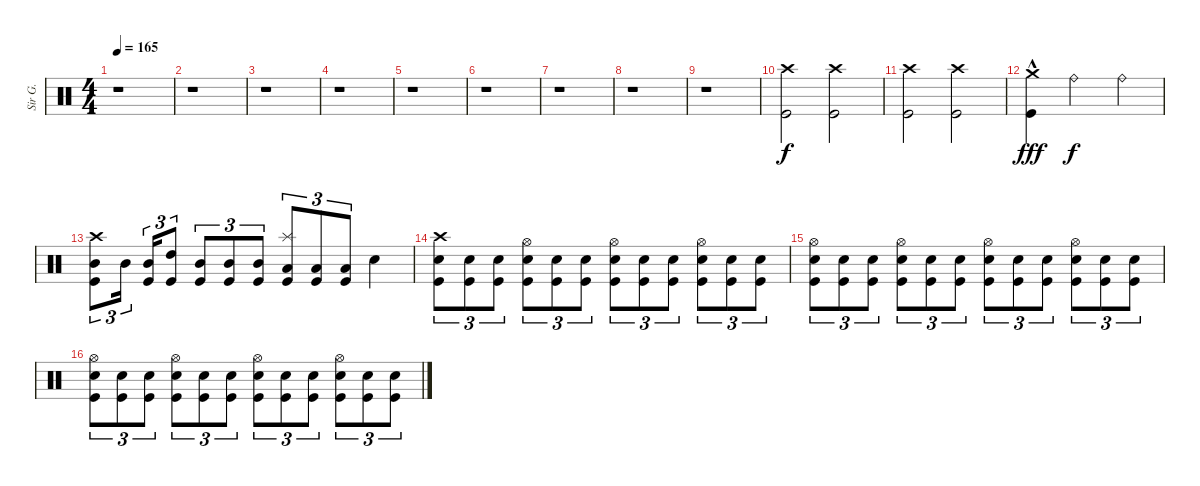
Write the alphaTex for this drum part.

\track ("Sir G." "Sir G.") {instrument percussion}
\staff {score}
\articulation defaults
\ts (4 4)
\tempo 165
\clef neutral
\ks c
r.1{dy f} |
r.1 |
r.1 |
r.1 |
r.1 |
r.1 |
r.1 |
r.1 |
r.1 |
("Crash high (hit)" "Kick (hit)").2 ("Crash high (hit)" "Kick (hit)").2 |
("Crash high (hit)" "Kick (hit)").2 ("Crash high (hit)" "Kick (hit)").2 |
("Crash medium (hit)"{hac} "Kick (hit)").4{dy fff} "Ride (bell)".2{dy f} "Ride (bell)".4 |
("Crash high (hit)" "Mid Tom (hit)" "Kick (hit)").8{tu (3 2)} "Mid Tom (hit)".16{tu (3 2) beam splitsecondary} ("Mid Tom (hit)" "Kick (hit)").16{tu (3 2)} ("High Tom (hit)" "Kick (hit)").8{tu (3 2)} ("Mid Tom (hit)" "Kick (hit)").8{tu (3 2)} ("Mid Tom (hit)" "Kick (hit)").8{tu (3 2)} ("Mid Tom (hit)" "Kick (hit)").8{tu (3 2)} ("Splash (hit)" "Low Tom (hit)" "Kick (hit)").8{tu (3 2)} ("Low Tom (hit)" "Kick (hit)").8{tu (3 2)} ("Low Tom (hit)" "Kick (hit)").8{tu (3 2)} "Electric Snare (hit)".4 |
("Crash high (hit)" "Electric Snare (hit)" "Kick (hit)").8{tu (3 2)} ("Electric Snare (hit)" "Kick (hit)").8{tu (3 2)} ("Electric Snare (hit)" "Kick (hit)").8{tu (3 2)} ("Hi-Hat (open)" "Electric Snare (hit)" "Kick (hit)").8{tu (3 2)} ("Electric Snare (hit)" "Kick (hit)").8{tu (3 2)} ("Electric Snare (hit)" "Kick (hit)").8{tu (3 2)} ("Hi-Hat (open)" "Electric Snare (hit)" "Kick (hit)").8{tu (3 2)} ("Electric Snare (hit)" "Kick (hit)").8{tu (3 2)} ("Electric Snare (hit)" "Kick (hit)").8{tu (3 2)} ("Hi-Hat (open)" "Electric Snare (hit)" "Kick (hit)").8{tu (3 2)} ("Electric Snare (hit)" "Kick (hit)").8{tu (3 2)} ("Electric Snare (hit)" "Kick (hit)").8{tu (3 2)} |
("Hi-Hat (open)" "Electric Snare (hit)" "Kick (hit)").8{tu (3 2)} ("Electric Snare (hit)" "Kick (hit)").8{tu (3 2)} ("Electric Snare (hit)" "Kick (hit)").8{tu (3 2)} ("Hi-Hat (open)" "Electric Snare (hit)" "Kick (hit)").8{tu (3 2)} ("Electric Snare (hit)" "Kick (hit)").8{tu (3 2)} ("Electric Snare (hit)" "Kick (hit)").8{tu (3 2)} ("Hi-Hat (open)" "Electric Snare (hit)" "Kick (hit)").8{tu (3 2)} ("Electric Snare (hit)" "Kick (hit)").8{tu (3 2)} ("Electric Snare (hit)" "Kick (hit)").8{tu (3 2)} ("Hi-Hat (open)" "Electric Snare (hit)" "Kick (hit)").8{tu (3 2)} ("Electric Snare (hit)" "Kick (hit)").8{tu (3 2)} ("Electric Snare (hit)" "Kick (hit)").8{tu (3 2)} |
("Hi-Hat (open)" "Electric Snare (hit)" "Kick (hit)").8{tu (3 2)} ("Electric Snare (hit)" "Kick (hit)").8{tu (3 2)} ("Electric Snare (hit)" "Kick (hit)").8{tu (3 2)} ("Hi-Hat (open)" "Electric Snare (hit)" "Kick (hit)").8{tu (3 2)} ("Electric Snare (hit)" "Kick (hit)").8{tu (3 2)} ("Electric Snare (hit)" "Kick (hit)").8{tu (3 2)} ("Hi-Hat (open)" "Electric Snare (hit)" "Kick (hit)").8{tu (3 2)} ("Electric Snare (hit)" "Kick (hit)").8{tu (3 2)} ("Electric Snare (hit)" "Kick (hit)").8{tu (3 2)} ("Hi-Hat (open)" "Electric Snare (hit)" "Kick (hit)").8{tu (3 2)} ("Electric Snare (hit)" "Kick (hit)").8{tu (3 2)} ("Electric Snare (hit)" "Kick (hit)").8{tu (3 2)}
